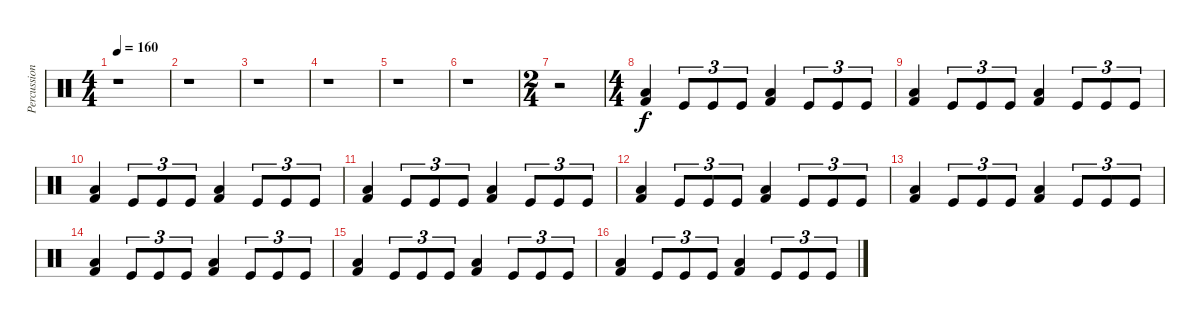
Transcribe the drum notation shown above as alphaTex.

\track ("Percussions" "Percussion") {instrument percussion}
\staff {score}
\articulation defaults
\ts (4 4)
\tempo 160
\clef neutral
\ks c
r.1{dy f} |
r.1 |
r.1 |
r.1 |
r.1 |
r.1 |
\ts (2 4)
r.2 |
\ts (4 4)
("Kick (hit) 2" "Low Floor Tom (hit)").4 "Kick (hit)".8{tu (3 2)} "Kick (hit)".8{tu (3 2)} "Kick (hit)".8{tu (3 2)} ("Kick (hit) 2" "Low Floor Tom (hit)").4 "Kick (hit)".8{tu (3 2)} "Kick (hit)".8{tu (3 2)} "Kick (hit)".8{tu (3 2)} |
("Kick (hit) 2" "Low Floor Tom (hit)").4 "Kick (hit)".8{tu (3 2)} "Kick (hit)".8{tu (3 2)} "Kick (hit)".8{tu (3 2)} ("Kick (hit) 2" "Low Floor Tom (hit)").4 "Kick (hit)".8{tu (3 2)} "Kick (hit)".8{tu (3 2)} "Kick (hit)".8{tu (3 2)} |
("Kick (hit) 2" "Low Floor Tom (hit)").4 "Kick (hit)".8{tu (3 2)} "Kick (hit)".8{tu (3 2)} "Kick (hit)".8{tu (3 2)} ("Kick (hit) 2" "Low Floor Tom (hit)").4 "Kick (hit)".8{tu (3 2)} "Kick (hit)".8{tu (3 2)} "Kick (hit)".8{tu (3 2)} |
("Kick (hit) 2" "Low Floor Tom (hit)").4 "Kick (hit)".8{tu (3 2)} "Kick (hit)".8{tu (3 2)} "Kick (hit)".8{tu (3 2)} ("Kick (hit) 2" "Low Floor Tom (hit)").4 "Kick (hit)".8{tu (3 2)} "Kick (hit)".8{tu (3 2)} "Kick (hit)".8{tu (3 2)} |
("Kick (hit) 2" "Low Floor Tom (hit)").4 "Kick (hit)".8{tu (3 2)} "Kick (hit)".8{tu (3 2)} "Kick (hit)".8{tu (3 2)} ("Kick (hit) 2" "Low Floor Tom (hit)").4 "Kick (hit)".8{tu (3 2)} "Kick (hit)".8{tu (3 2)} "Kick (hit)".8{tu (3 2)} |
("Kick (hit) 2" "Low Floor Tom (hit)").4 "Kick (hit)".8{tu (3 2)} "Kick (hit)".8{tu (3 2)} "Kick (hit)".8{tu (3 2)} ("Kick (hit) 2" "Low Floor Tom (hit)").4 "Kick (hit)".8{tu (3 2)} "Kick (hit)".8{tu (3 2)} "Kick (hit)".8{tu (3 2)} |
("Kick (hit) 2" "Low Floor Tom (hit)").4 "Kick (hit)".8{tu (3 2)} "Kick (hit)".8{tu (3 2)} "Kick (hit)".8{tu (3 2)} ("Kick (hit) 2" "Low Floor Tom (hit)").4 "Kick (hit)".8{tu (3 2)} "Kick (hit)".8{tu (3 2)} "Kick (hit)".8{tu (3 2)} |
("Kick (hit) 2" "Low Floor Tom (hit)").4 "Kick (hit)".8{tu (3 2)} "Kick (hit)".8{tu (3 2)} "Kick (hit)".8{tu (3 2)} ("Kick (hit) 2" "Low Floor Tom (hit)").4 "Kick (hit)".8{tu (3 2)} "Kick (hit)".8{tu (3 2)} "Kick (hit)".8{tu (3 2)} |
("Kick (hit) 2" "Low Floor Tom (hit)").4 "Kick (hit)".8{tu (3 2)} "Kick (hit)".8{tu (3 2)} "Kick (hit)".8{tu (3 2)} ("Kick (hit) 2" "Low Floor Tom (hit)").4 "Kick (hit)".8{tu (3 2)} "Kick (hit)".8{tu (3 2)} "Kick (hit)".8{tu (3 2)}
